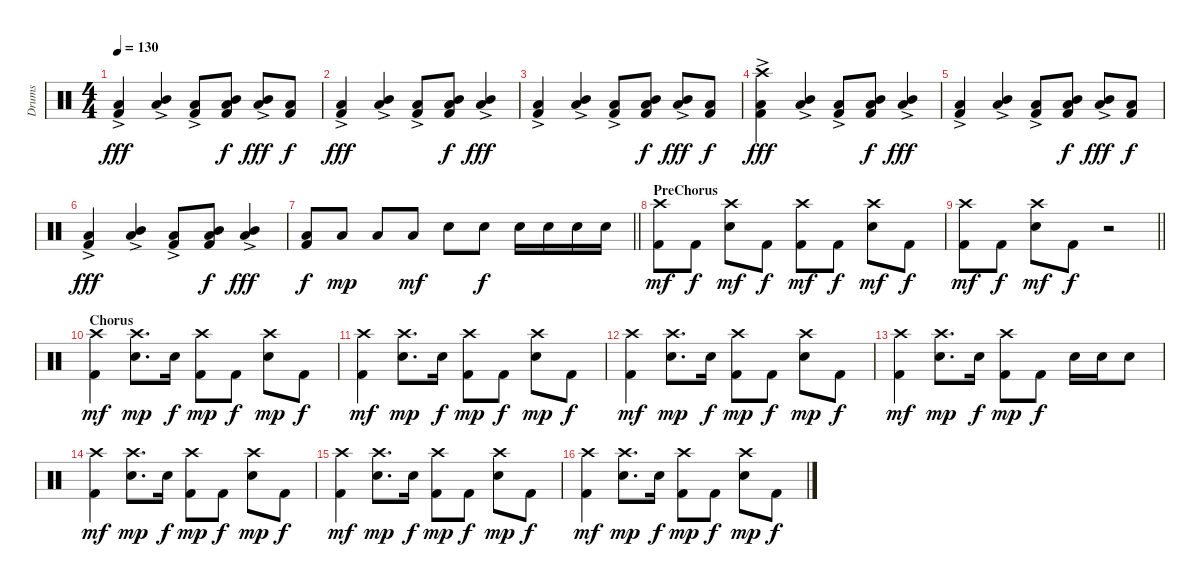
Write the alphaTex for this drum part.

\track ("Drums" "Drums") {instrument percussion}
\staff {score}
\articulation defaults
\ts (4 4)
\tempo 130
\clef neutral
\ks c
("Low Floor Tom (hit)" "Kick (hit) 2"{ac}).4{dy fff} ("Mid Tom (hit)" "Low Tom (hit)"{ac}).4 ("Low Floor Tom (hit)" "Kick (hit) 2"{ac}).8 ("Mid Tom (hit)" "Low Floor Tom (hit)" "Kick (hit) 2").8{dy f} ("Mid Tom (hit)" "Low Tom (hit)"{ac}).8{dy fff} ("Low Floor Tom (hit)" "Kick (hit) 2").8{dy f} |
("Low Floor Tom (hit)" "Kick (hit) 2"{ac}).4{dy fff} ("Mid Tom (hit)" "Low Tom (hit)"{ac}).4 ("Low Floor Tom (hit)" "Kick (hit) 2"{ac}).8 ("Mid Tom (hit)" "Low Floor Tom (hit)" "Kick (hit) 2").8{dy f} ("Mid Tom (hit)" "Low Tom (hit)"{ac}).4{dy fff} |
("Low Floor Tom (hit)" "Kick (hit) 2"{ac}).4 ("Mid Tom (hit)" "Low Tom (hit)"{ac}).4 ("Low Floor Tom (hit)" "Kick (hit) 2"{ac}).8 ("Mid Tom (hit)" "Low Floor Tom (hit)" "Kick (hit) 2").8{dy f} ("Mid Tom (hit)" "Low Tom (hit)"{ac}).8{dy fff} ("Low Floor Tom (hit)" "Kick (hit) 2").8{dy f} |
("Crash high (hit)" "Low Floor Tom (hit)" "Kick (hit) 2"{ac}).4{dy fff} ("Mid Tom (hit)" "Low Tom (hit)"{ac}).4 ("Low Floor Tom (hit)" "Kick (hit) 2"{ac}).8 ("Mid Tom (hit)" "Low Floor Tom (hit)" "Kick (hit) 2").8{dy f} ("Mid Tom (hit)" "Low Tom (hit)"{ac}).4{dy fff} |
("Low Floor Tom (hit)" "Kick (hit) 2"{ac}).4 ("Mid Tom (hit)" "Low Tom (hit)"{ac}).4 ("Low Floor Tom (hit)" "Kick (hit) 2"{ac}).8 ("Mid Tom (hit)" "Low Floor Tom (hit)" "Kick (hit) 2").8{dy f} ("Mid Tom (hit)" "Low Tom (hit)"{ac}).8{dy fff} ("Low Floor Tom (hit)" "Kick (hit) 2").8{dy f} |
("Low Floor Tom (hit)" "Kick (hit) 2"{ac}).4{dy fff} ("Mid Tom (hit)" "Low Tom (hit)"{ac}).4 ("Low Floor Tom (hit)" "Kick (hit) 2"{ac}).8 ("Mid Tom (hit)" "Low Floor Tom (hit)" "Kick (hit) 2").8{dy f} ("Mid Tom (hit)" "Low Tom (hit)"{ac}).4{dy fff} |
\barLineRight lightlight
("Low Floor Tom (hit)" "Kick (hit) 2").8{dy f} "Low Tom (hit)".8{dy mp} "Low Tom (hit)".8 "Low Tom (hit)".8{dy mf} "Snare (hit) 2".8 "Snare (hit) 2".8{dy f} "Snare (hit) 2".16 "Snare (hit) 2".16 "Snare (hit) 2".16 "Snare (hit) 2".16 |
\section ("" "PreChorus")
("Crash high (hit)" "Kick (hit) 2").8{dy mf} "Kick (hit) 2".8{dy f} ("Crash high (hit)" "Snare (hit) 2").8{dy mf} "Kick (hit) 2".8{dy f} ("Crash high (hit)" "Kick (hit) 2").8{dy mf} "Kick (hit) 2".8{dy f} ("Crash high (hit)" "Snare (hit) 2").8{dy mf} "Kick (hit) 2".8{dy f} |
\barLineRight lightlight
("Crash high (hit)" "Kick (hit) 2").8{dy mf} "Kick (hit) 2".8{dy f} ("Crash high (hit)" "Snare (hit) 2").8{dy mf} "Kick (hit) 2".8{dy f} r.2 |
\section ("" "Chorus")
("Crash high (hit)" "Kick (hit) 2").4{dy mf} ("Crash high (hit)" "Snare (hit) 2").8{d dy mp} "Snare (hit) 2".16{dy f} ("Crash high (hit)" "Kick (hit) 2").8{dy mp} "Kick (hit) 2".8{dy f} ("Crash high (hit)" "Snare (hit) 2").8{dy mp} "Kick (hit) 2".8{dy f} |
("Crash high (hit)" "Kick (hit) 2").4{dy mf} ("Crash high (hit)" "Snare (hit) 2").8{d dy mp} "Snare (hit) 2".16{dy f} ("Crash high (hit)" "Kick (hit) 2").8{dy mp} "Kick (hit) 2".8{dy f} ("Crash high (hit)" "Snare (hit) 2").8{dy mp} "Kick (hit) 2".8{dy f} |
("Crash high (hit)" "Kick (hit) 2").4{dy mf} ("Crash high (hit)" "Snare (hit) 2").8{d dy mp} "Snare (hit) 2".16{dy f} ("Crash high (hit)" "Kick (hit) 2").8{dy mp} "Kick (hit) 2".8{dy f} ("Crash high (hit)" "Snare (hit) 2").8{dy mp} "Kick (hit) 2".8{dy f} |
("Crash high (hit)" "Kick (hit) 2").4{dy mf} ("Crash high (hit)" "Snare (hit) 2").8{d dy mp} "Snare (hit) 2".16{dy f} ("Crash high (hit)" "Kick (hit) 2").8{dy mp} "Kick (hit) 2".8{dy f} "Snare (hit) 2".16 "Snare (hit) 2".16 "Snare (hit) 2".8 |
("Crash high (hit)" "Kick (hit) 2").4{dy mf} ("Crash high (hit)" "Snare (hit) 2").8{d dy mp} "Snare (hit) 2".16{dy f} ("Crash high (hit)" "Kick (hit) 2").8{dy mp} "Kick (hit) 2".8{dy f} ("Crash high (hit)" "Snare (hit) 2").8{dy mp} "Kick (hit) 2".8{dy f} |
("Crash high (hit)" "Kick (hit) 2").4{dy mf} ("Crash high (hit)" "Snare (hit) 2").8{d dy mp} "Snare (hit) 2".16{dy f} ("Crash high (hit)" "Kick (hit) 2").8{dy mp} "Kick (hit) 2".8{dy f} ("Crash high (hit)" "Snare (hit) 2").8{dy mp} "Kick (hit) 2".8{dy f} |
("Crash high (hit)" "Kick (hit) 2").4{dy mf} ("Crash high (hit)" "Snare (hit) 2").8{d dy mp} "Snare (hit) 2".16{dy f} ("Crash high (hit)" "Kick (hit) 2").8{dy mp} "Kick (hit) 2".8{dy f} ("Crash high (hit)" "Snare (hit) 2").8{dy mp} "Kick (hit) 2".8{dy f}
